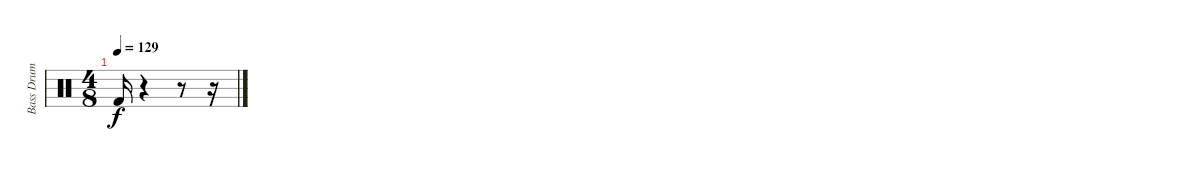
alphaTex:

\track ("Bass Drum" "Bass Drum") {instrument percussion}
\staff {score}
\articulation defaults
\ts (4 8)
\tempo 129
\clef neutral
\ks c "Kick (hit) 2".16{dy f}
r.4 r.8 r.16
